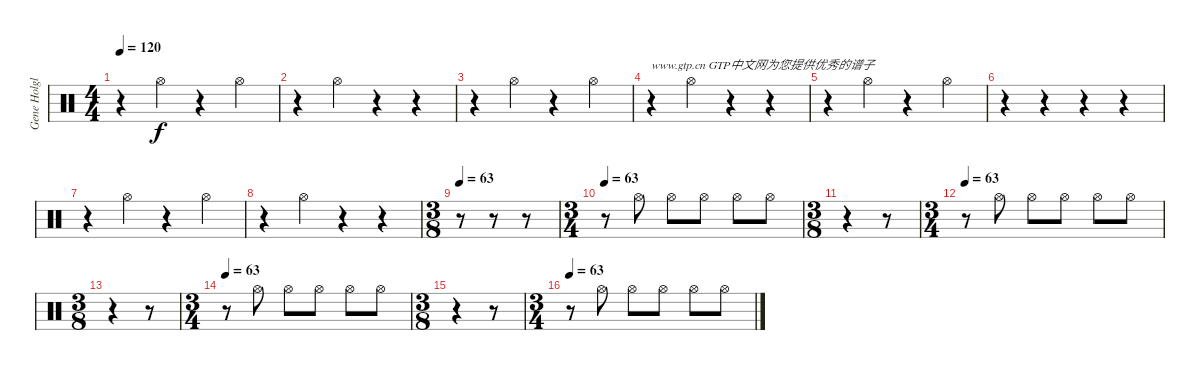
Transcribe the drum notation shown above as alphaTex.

\track ("Gene Holglan" "Gene Holgl") {instrument percussion}
\staff {score}
\articulation defaults
\ts (4 4)
\tempo 120
\clef neutral
\ks c
r.4{dy f} "Hi-Hat (open)".4 r.4 "Hi-Hat (open)".4 |
r.4 "Hi-Hat (open)".4 r.4 r.4 |
r.4 "Hi-Hat (open)".4 r.4 "Hi-Hat (open)".4 |
r.4{txt "www.gtp.cn GTP中文网为您提供优秀的谱子"} "Hi-Hat (open)".4 r.4 r.4 |
r.4 "Hi-Hat (open)".4 r.4 "Hi-Hat (open)".4 |
r.4 r.4 r.4 r.4 |
r.4 "Hi-Hat (open)".4 r.4 "Hi-Hat (open)".4 |
r.4 "Hi-Hat (open)".4 r.4 r.4 |
\ts (3 8)
\tempo 63
r.8 r.8 r.8 |
\ts (3 4)
\tempo 63
r.8 "Hi-Hat (open)".8 "Hi-Hat (open)".8 "Hi-Hat (open)".8 "Hi-Hat (open)".8 "Hi-Hat (open)".8 |
\ts (3 8)
r.4 r.8 |
\ts (3 4)
\tempo 63
r.8 "Hi-Hat (open)".8 "Hi-Hat (open)".8 "Hi-Hat (open)".8 "Hi-Hat (open)".8 "Hi-Hat (open)".8 |
\ts (3 8)
r.4 r.8 |
\ts (3 4)
\tempo 63
r.8 "Hi-Hat (open)".8 "Hi-Hat (open)".8 "Hi-Hat (open)".8 "Hi-Hat (open)".8 "Hi-Hat (open)".8 |
\ts (3 8)
r.4 r.8 |
\ts (3 4)
\tempo 63
r.8 "Hi-Hat (open)".8 "Hi-Hat (open)".8 "Hi-Hat (open)".8 "Hi-Hat (open)".8 "Hi-Hat (open)".8
